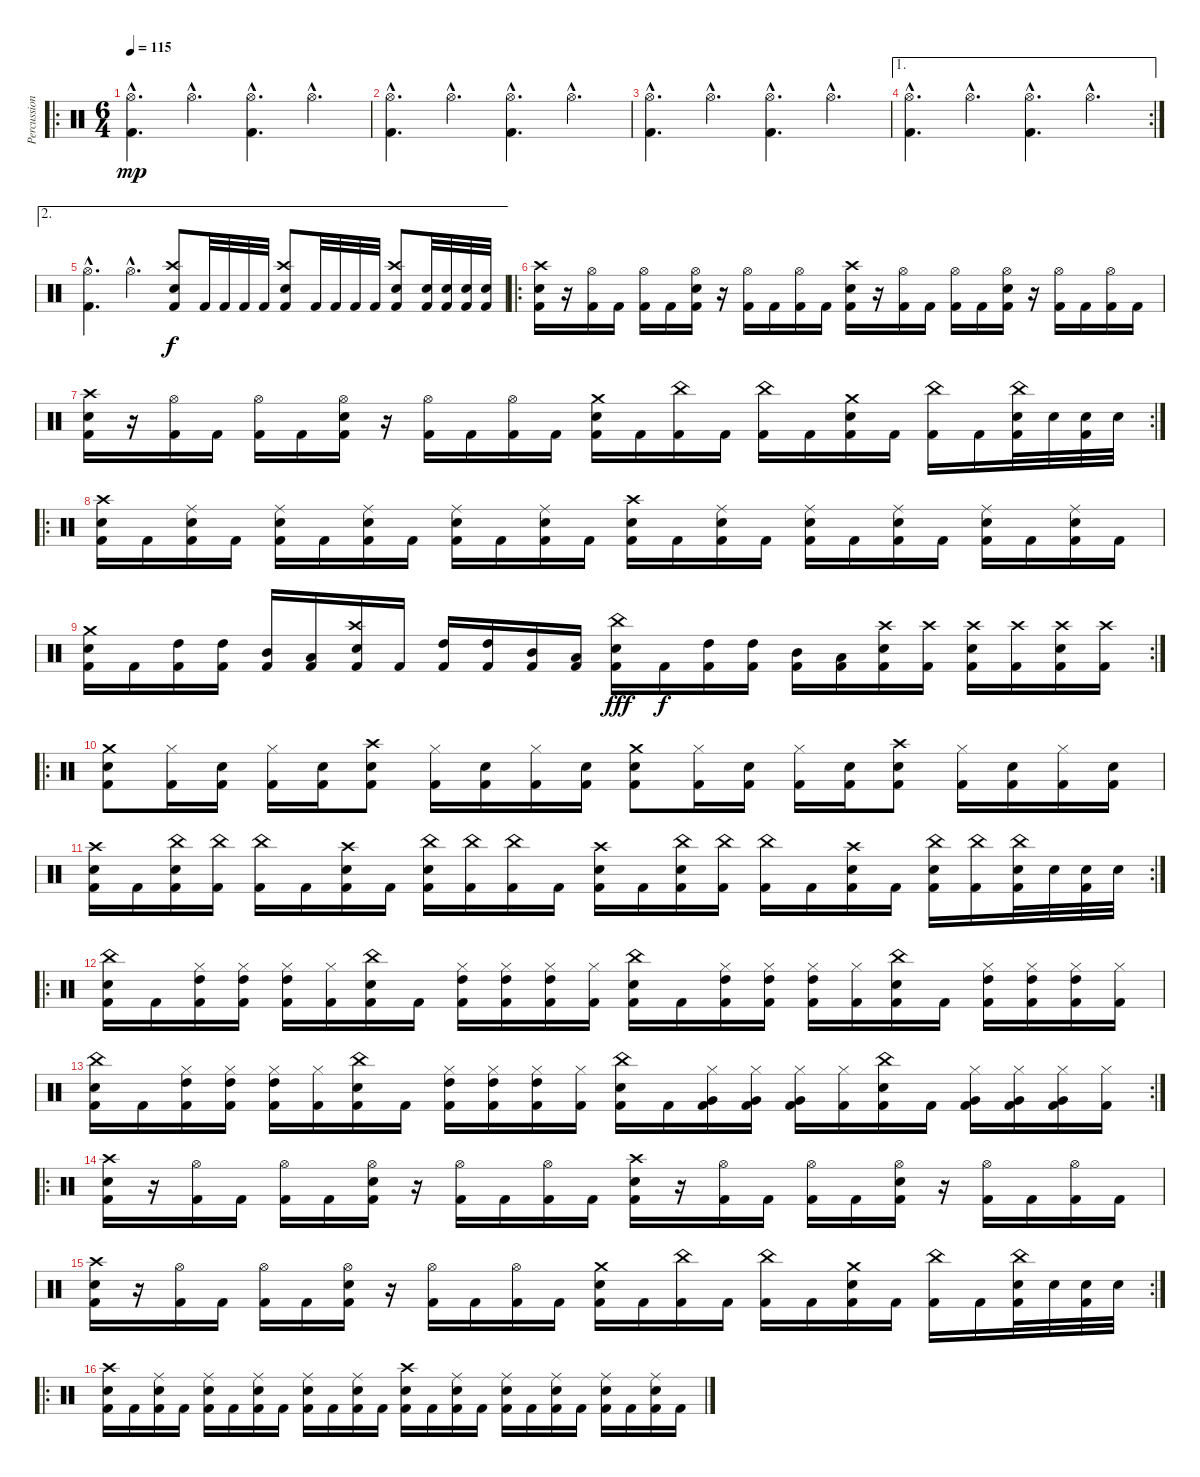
\track ("Percussion" "Percussion") {instrument percussion}
\staff {score}
\articulation defaults
\ro
\ts (6 4)
\tempo 115
\clef neutral
\ks c
("Hi-Hat (open)"{hac} "Kick (hit) 2"{hac}).4{d dy mp} "Hi-Hat (open)"{hac}.4{d} ("Hi-Hat (open)"{hac} "Kick (hit) 2"{hac}).4{d} "Hi-Hat (open)"{hac}.4{d} |
("Hi-Hat (open)"{hac} "Kick (hit) 2"{hac}).4{d} "Hi-Hat (open)"{hac}.4{d} ("Hi-Hat (open)"{hac} "Kick (hit) 2"{hac}).4{d} "Hi-Hat (open)"{hac}.4{d} |
("Hi-Hat (open)"{hac} "Kick (hit) 2"{hac}).4{d} "Hi-Hat (open)"{hac}.4{d} ("Hi-Hat (open)"{hac} "Kick (hit) 2"{hac}).4{d} "Hi-Hat (open)"{hac}.4{d} |
\ae 1
\rc 2
("Hi-Hat (open)"{hac} "Kick (hit) 2"{hac}).4{d} "Hi-Hat (open)"{hac}.4{d} ("Hi-Hat (open)"{hac} "Kick (hit) 2"{hac}).4{d} "Hi-Hat (open)"{hac}.4{d} |
\ae 2
("Hi-Hat (open)"{hac} "Kick (hit) 2"{hac}).4{d} "Hi-Hat (open)"{hac}.4{d} ("Crash high (hit)" "Electric Snare (hit)" "Kick (hit) 2").8{dy f} "Kick (hit) 2".32 "Kick (hit) 2".32 "Kick (hit) 2".32 "Kick (hit) 2".32 ("Crash high (hit)" "Electric Snare (hit)" "Kick (hit) 2").8 "Kick (hit) 2".32 "Kick (hit) 2".32 "Kick (hit) 2".32 "Kick (hit) 2".32 ("Crash high (hit)" "Electric Snare (hit)" "Kick (hit) 2").8 ("Electric Snare (hit)" "Kick (hit) 2").32 ("Electric Snare (hit)" "Kick (hit) 2").32 ("Electric Snare (hit)" "Kick (hit) 2").32 ("Electric Snare (hit)" "Kick (hit) 2").32 |
\ro
("Crash high (hit)" "Electric Snare (hit)" "Kick (hit) 2").16 r.16 ("Hi-Hat (open)" "Kick (hit) 2").16 "Kick (hit) 2".16 ("Hi-Hat (open)" "Kick (hit) 2").16 "Kick (hit) 2".16 ("Hi-Hat (open)" "Electric Snare (hit)" "Kick (hit) 2").16 r.16 ("Hi-Hat (open)" "Kick (hit) 2").16 "Kick (hit) 2".16 ("Hi-Hat (open)" "Kick (hit) 2").16 "Kick (hit) 2".16 ("Crash high (hit)" "Electric Snare (hit)" "Kick (hit) 2").16 r.16 ("Hi-Hat (open)" "Kick (hit) 2").16 "Kick (hit) 2".16 ("Hi-Hat (open)" "Kick (hit) 2").16 "Kick (hit) 2".16 ("Hi-Hat (open)" "Electric Snare (hit)" "Kick (hit) 2").16 r.16 ("Hi-Hat (open)" "Kick (hit) 2").16 "Kick (hit) 2".16 ("Hi-Hat (open)" "Kick (hit) 2").16 "Kick (hit) 2".16 |
\rc 2
("Crash high (hit)" "Electric Snare (hit)" "Kick (hit) 2").16 r.16 ("Hi-Hat (open)" "Kick (hit) 2").16 "Kick (hit) 2".16 ("Hi-Hat (open)" "Kick (hit) 2").16 "Kick (hit) 2".16 ("Hi-Hat (open)" "Electric Snare (hit)" "Kick (hit) 2").16 r.16 ("Hi-Hat (open)" "Kick (hit) 2").16 "Kick (hit) 2".16 ("Hi-Hat (open)" "Kick (hit) 2").16 "Kick (hit) 2".16 ("Crash medium (hit)" "Electric Snare (hit)" "Kick (hit) 2").16 "Kick (hit) 2".16 ("China (hit)" "Kick (hit) 2").16 "Kick (hit) 2".16 ("China (hit)" "Kick (hit) 2").16 "Kick (hit) 2".16 ("Crash medium (hit)" "Electric Snare (hit)" "Kick (hit) 2").16 "Kick (hit) 2".16 ("China (hit)" "Kick (hit) 2").16 "Kick (hit) 2".16 ("China (hit)" "Electric Snare (hit)" "Kick (hit) 2").32 "Electric Snare (hit)".32 ("Electric Snare (hit)" "Kick (hit) 2").32 "Electric Snare (hit)".32 |
\ro
("Crash high (hit)" "Electric Snare (hit)" "Kick (hit) 2").16 "Kick (hit) 2".16 ("Ride (middle)" "Electric Snare (hit)" "Kick (hit) 2").16 "Kick (hit) 2".16 ("Ride (middle)" "Electric Snare (hit)" "Kick (hit) 2").16 "Kick (hit) 2".16 ("Ride (middle)" "Electric Snare (hit)" "Kick (hit) 2").16 "Kick (hit) 2".16 ("Ride (middle)" "Electric Snare (hit)" "Kick (hit) 2").16 "Kick (hit) 2".16 ("Ride (middle)" "Electric Snare (hit)" "Kick (hit) 2").16 "Kick (hit) 2".16 ("Crash high (hit)" "Electric Snare (hit)" "Kick (hit) 2").16 "Kick (hit) 2".16 ("Ride (middle)" "Electric Snare (hit)" "Kick (hit) 2").16 "Kick (hit) 2".16 ("Ride (middle)" "Electric Snare (hit)" "Kick (hit) 2").16 "Kick (hit) 2".16 ("Ride (middle)" "Electric Snare (hit)" "Kick (hit) 2").16 "Kick (hit) 2".16 ("Ride (middle)" "Electric Snare (hit)" "Kick (hit) 2").16 "Kick (hit) 2".16 ("Ride (middle)" "Electric Snare (hit)" "Kick (hit) 2").16 "Kick (hit) 2".16 |
\rc 2
("Crash medium (hit)" "Electric Snare (hit)" "Kick (hit) 2").16 "Kick (hit) 2".16 ("High Tom (hit)" "Kick (hit) 2").16 ("High Tom (hit)" "Kick (hit) 2").16 ("Mid Tom (hit)" "Kick (hit) 2").16 ("Low Tom (hit)" "Kick (hit) 2").16 ("Crash high (hit)" "Electric Snare (hit)" "Kick (hit) 2").16 "Kick (hit) 2".16 ("High Tom (hit)" "Kick (hit) 2").16 ("High Tom (hit)" "Kick (hit) 2").16 ("Mid Tom (hit)" "Kick (hit) 2").16 ("Low Tom (hit)" "Kick (hit) 2").16 ("China (hit)" "Electric Snare (hit)" "Kick (hit) 2").16{dy fff} "Kick (hit) 2".16{dy f} ("High Tom (hit)" "Kick (hit) 2").16 ("High Tom (hit)" "Kick (hit) 2").16 ("Mid Tom (hit)" "Kick (hit) 2").16 ("Low Tom (hit)" "Kick (hit) 2").16 ("Crash high (hit)" "Electric Snare (hit)" "Kick (hit) 2").16 ("Crash high (hit)" "Kick (hit) 2").16 ("Crash high (hit)" "Electric Snare (hit)" "Kick (hit) 2").16 ("Crash high (hit)" "Kick (hit) 2").16 ("Crash high (hit)" "Electric Snare (hit)" "Kick (hit) 2").16 ("Crash high (hit)" "Kick (hit) 2").16 |
\ro
("Crash medium (hit)" "Electric Snare (hit)" "Kick (hit) 2").8 ("Hi-Hat (closed)" "Kick (hit) 2").16 ("Electric Snare (hit)" "Kick (hit) 2").16 ("Hi-Hat (closed)" "Kick (hit) 2").16 ("Electric Snare (hit)" "Kick (hit) 2").16 ("Crash high (hit)" "Electric Snare (hit)" "Kick (hit) 2").8 ("Hi-Hat (closed)" "Kick (hit) 2").16 ("Electric Snare (hit)" "Kick (hit) 2").16 ("Hi-Hat (closed)" "Kick (hit) 2").16 ("Electric Snare (hit)" "Kick (hit) 2").16 ("Crash medium (hit)" "Electric Snare (hit)" "Kick (hit) 2").8 ("Hi-Hat (closed)" "Kick (hit) 2").16 ("Electric Snare (hit)" "Kick (hit) 2").16 ("Hi-Hat (closed)" "Kick (hit) 2").16 ("Electric Snare (hit)" "Kick (hit) 2").16 ("Crash high (hit)" "Electric Snare (hit)" "Kick (hit) 2").8 ("Hi-Hat (closed)" "Kick (hit) 2").16 ("Electric Snare (hit)" "Kick (hit) 2").16 ("Hi-Hat (closed)" "Kick (hit) 2").16 ("Electric Snare (hit)" "Kick (hit) 2").16 |
\rc 2
("Crash high (hit)" "Electric Snare (hit)" "Kick (hit) 2").16 "Kick (hit) 2".16 ("China (hit)" "Electric Snare (hit)" "Kick (hit) 2").16 ("China (hit)" "Kick (hit) 2").16 ("China (hit)" "Kick (hit) 2").16 "Kick (hit) 2".16 ("Crash high (hit)" "Electric Snare (hit)" "Kick (hit) 2").16 "Kick (hit) 2".16 ("China (hit)" "Electric Snare (hit)" "Kick (hit) 2").16 ("China (hit)" "Kick (hit) 2").16 ("China (hit)" "Kick (hit) 2").16 "Kick (hit) 2".16 ("Crash high (hit)" "Electric Snare (hit)" "Kick (hit) 2").16 "Kick (hit) 2".16 ("China (hit)" "Electric Snare (hit)" "Kick (hit) 2").16 ("China (hit)" "Kick (hit) 2").16 ("China (hit)" "Kick (hit) 2").16 "Kick (hit) 2".16 ("Crash high (hit)" "Electric Snare (hit)" "Kick (hit) 2").16 "Kick (hit) 2".16 ("China (hit)" "Electric Snare (hit)" "Kick (hit) 2").16 ("China (hit)" "Kick (hit) 2").16 ("China (hit)" "Electric Snare (hit)" "Kick (hit) 2").32 "Electric Snare (hit)".32 ("Electric Snare (hit)" "Kick (hit) 2").32 "Electric Snare (hit)".32 |
\ro
("China (hit)" "Electric Snare (hit)" "Kick (hit) 2").16 "Kick (hit) 2".16 ("Hi-Hat (closed)" "High Tom (hit)" "Kick (hit) 2").16 ("Hi-Hat (closed)" "High Tom (hit)" "Kick (hit) 2").16 ("Hi-Hat (closed)" "High Tom (hit)" "Kick (hit) 2").16 ("Hi-Hat (closed)" "Kick (hit) 2").16 ("China (hit)" "Electric Snare (hit)" "Kick (hit) 2").16 "Kick (hit) 2".16 ("Hi-Hat (closed)" "High Tom (hit)" "Kick (hit) 2").16 ("Hi-Hat (closed)" "High Tom (hit)" "Kick (hit) 2").16 ("Hi-Hat (closed)" "High Tom (hit)" "Kick (hit) 2").16 ("Hi-Hat (closed)" "Kick (hit) 2").16 ("China (hit)" "Electric Snare (hit)" "Kick (hit) 2").16 "Kick (hit) 2".16 ("Hi-Hat (closed)" "High Tom (hit)" "Kick (hit) 2").16 ("Hi-Hat (closed)" "High Tom (hit)" "Kick (hit) 2").16 ("Hi-Hat (closed)" "High Tom (hit)" "Kick (hit) 2").16 ("Hi-Hat (closed)" "Kick (hit) 2").16 ("China (hit)" "Electric Snare (hit)" "Kick (hit) 2").16 "Kick (hit) 2".16 ("Hi-Hat (closed)" "High Tom (hit)" "Kick (hit) 2").16 ("Hi-Hat (closed)" "High Tom (hit)" "Kick (hit) 2").16 ("Hi-Hat (closed)" "High Tom (hit)" "Kick (hit) 2").16 ("Hi-Hat (closed)" "Kick (hit) 2").16 |
\rc 2
("China (hit)" "Electric Snare (hit)" "Kick (hit) 2").16 "Kick (hit) 2".16 ("Hi-Hat (closed)" "High Tom (hit)" "Kick (hit) 2").16 ("Hi-Hat (closed)" "High Tom (hit)" "Kick (hit) 2").16 ("Hi-Hat (closed)" "High Tom (hit)" "Kick (hit) 2").16 ("Hi-Hat (closed)" "Kick (hit) 2").16 ("China (hit)" "Electric Snare (hit)" "Kick (hit) 2").16 "Kick (hit) 2".16 ("Hi-Hat (closed)" "High Tom (hit)" "Kick (hit) 2").16 ("Hi-Hat (closed)" "High Tom (hit)" "Kick (hit) 2").16 ("Hi-Hat (closed)" "High Tom (hit)" "Kick (hit) 2").16 ("Hi-Hat (closed)" "Kick (hit) 2").16 ("China (hit)" "Electric Snare (hit)" "Kick (hit) 2").16 "Kick (hit) 2".16 ("Hi-Hat (closed)" "Very Low Tom (hit)" "Kick (hit) 2").16 ("Hi-Hat (closed)" "Very Low Tom (hit)" "Kick (hit) 2").16 ("Hi-Hat (closed)" "Very Low Tom (hit)" "Kick (hit) 2").16 ("Hi-Hat (closed)" "Kick (hit) 2").16 ("China (hit)" "Electric Snare (hit)" "Kick (hit) 2").16 "Kick (hit) 2".16 ("Hi-Hat (closed)" "Very Low Tom (hit)" "Kick (hit) 2").16 ("Hi-Hat (closed)" "Very Low Tom (hit)" "Kick (hit) 2").16 ("Hi-Hat (closed)" "Very Low Tom (hit)" "Kick (hit) 2").16 ("Hi-Hat (closed)" "Kick (hit) 2").16 |
\ro
("Crash high (hit)" "Electric Snare (hit)" "Kick (hit) 2").16 r.16 ("Hi-Hat (open)" "Kick (hit) 2").16 "Kick (hit) 2".16 ("Hi-Hat (open)" "Kick (hit) 2").16 "Kick (hit) 2".16 ("Hi-Hat (open)" "Electric Snare (hit)" "Kick (hit) 2").16 r.16 ("Hi-Hat (open)" "Kick (hit) 2").16 "Kick (hit) 2".16 ("Hi-Hat (open)" "Kick (hit) 2").16 "Kick (hit) 2".16 ("Crash high (hit)" "Electric Snare (hit)" "Kick (hit) 2").16 r.16 ("Hi-Hat (open)" "Kick (hit) 2").16 "Kick (hit) 2".16 ("Hi-Hat (open)" "Kick (hit) 2").16 "Kick (hit) 2".16 ("Hi-Hat (open)" "Electric Snare (hit)" "Kick (hit) 2").16 r.16 ("Hi-Hat (open)" "Kick (hit) 2").16 "Kick (hit) 2".16 ("Hi-Hat (open)" "Kick (hit) 2").16 "Kick (hit) 2".16 |
\rc 2
("Crash high (hit)" "Electric Snare (hit)" "Kick (hit) 2").16 r.16 ("Hi-Hat (open)" "Kick (hit) 2").16 "Kick (hit) 2".16 ("Hi-Hat (open)" "Kick (hit) 2").16 "Kick (hit) 2".16 ("Hi-Hat (open)" "Electric Snare (hit)" "Kick (hit) 2").16 r.16 ("Hi-Hat (open)" "Kick (hit) 2").16 "Kick (hit) 2".16 ("Hi-Hat (open)" "Kick (hit) 2").16 "Kick (hit) 2".16 ("Crash medium (hit)" "Electric Snare (hit)" "Kick (hit) 2").16 "Kick (hit) 2".16 ("China (hit)" "Kick (hit) 2").16 "Kick (hit) 2".16 ("China (hit)" "Kick (hit) 2").16 "Kick (hit) 2".16 ("Crash medium (hit)" "Electric Snare (hit)" "Kick (hit) 2").16 "Kick (hit) 2".16 ("China (hit)" "Kick (hit) 2").16 "Kick (hit) 2".16 ("China (hit)" "Electric Snare (hit)" "Kick (hit) 2").32 "Electric Snare (hit)".32 ("Electric Snare (hit)" "Kick (hit) 2").32 "Electric Snare (hit)".32 |
\ro
("Crash high (hit)" "Electric Snare (hit)" "Kick (hit) 2").16 "Kick (hit) 2".16 ("Ride (middle)" "Electric Snare (hit)" "Kick (hit) 2").16 "Kick (hit) 2".16 ("Ride (middle)" "Electric Snare (hit)" "Kick (hit) 2").16 "Kick (hit) 2".16 ("Ride (middle)" "Electric Snare (hit)" "Kick (hit) 2").16 "Kick (hit) 2".16 ("Ride (middle)" "Electric Snare (hit)" "Kick (hit) 2").16 "Kick (hit) 2".16 ("Ride (middle)" "Electric Snare (hit)" "Kick (hit) 2").16 "Kick (hit) 2".16 ("Crash high (hit)" "Electric Snare (hit)" "Kick (hit) 2").16 "Kick (hit) 2".16 ("Ride (middle)" "Electric Snare (hit)" "Kick (hit) 2").16 "Kick (hit) 2".16 ("Ride (middle)" "Electric Snare (hit)" "Kick (hit) 2").16 "Kick (hit) 2".16 ("Ride (middle)" "Electric Snare (hit)" "Kick (hit) 2").16 "Kick (hit) 2".16 ("Ride (middle)" "Electric Snare (hit)" "Kick (hit) 2").16 "Kick (hit) 2".16 ("Ride (middle)" "Electric Snare (hit)" "Kick (hit) 2").16 "Kick (hit) 2".16
